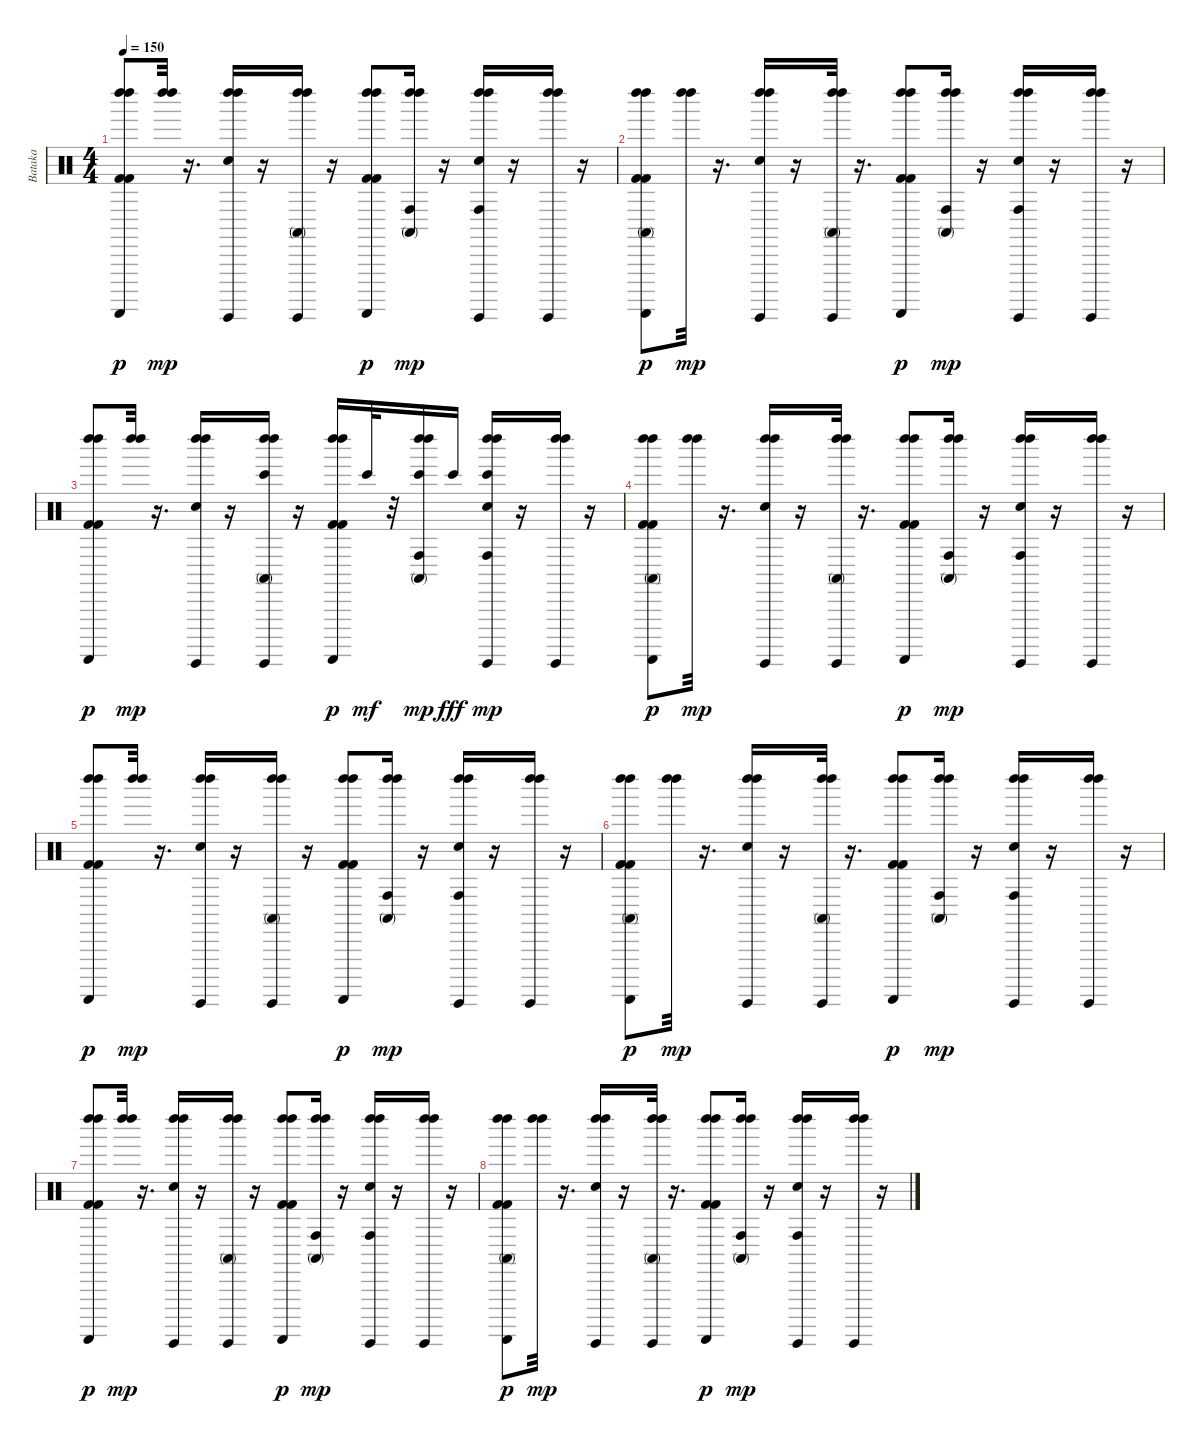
\track ("Bataka" "Bataka") {instrument percussion}
\staff {score}
\articulation defaults
\ts (4 4)
\tempo 150
\clef neutral
\ks c
("Kick (hit) 2" "Kick (hit) 2" "Left Maraca (hit)" "Guiro (scrap-return)" "Left Maraca (hit)").8{dy p} ("Left Maraca (hit)" "Left Maraca (hit)").32{dy mp} r.16{d} ("Electric Snare (hit)" "Left Maraca (hit)" "Guiro (hit)" "Left Maraca (hit)").16 r.16 ("Left Maraca (hit)" "Conga high (mute)" "Guiro (hit)" "Left Maraca (hit)").16 r.16 ("Kick (hit) 2" "Kick (hit) 2" "Left Maraca (hit)" "Guiro (scrap-return)" "Left Maraca (hit)").8{dy p} ("Left Maraca (hit)" "Conga high (hit)" "Conga high (mute)" "Left Maraca (hit)").16{dy mp} r.16 ("Electric Snare (hit)" "Left Maraca (hit)" "Conga high (hit)" "Guiro (hit)" "Left Maraca (hit)").16 r.16 ("Left Maraca (hit)" "Guiro (hit)" "Left Maraca (hit)").16 r.16 |
("Kick (hit) 2" "Kick (hit) 2" "Left Maraca (hit)" "Conga high (mute)" "Guiro (scrap-return)" "Left Maraca (hit)").8{dy p} ("Left Maraca (hit)" "Left Maraca (hit)").32{dy mp} r.16{d} ("Electric Snare (hit)" "Left Maraca (hit)" "Guiro (hit)" "Left Maraca (hit)").16 r.16 ("Left Maraca (hit)" "Conga high (mute)" "Guiro (hit)" "Left Maraca (hit)").32 r.16{d} ("Kick (hit) 2" "Kick (hit) 2" "Left Maraca (hit)" "Guiro (scrap-return)" "Left Maraca (hit)").8{dy p} ("Left Maraca (hit)" "Conga high (hit)" "Conga high (mute)" "Left Maraca (hit)").16{dy mp} r.16 ("Electric Snare (hit)" "Left Maraca (hit)" "Conga high (hit)" "Guiro (hit)" "Left Maraca (hit)").16 r.16 ("Left Maraca (hit)" "Guiro (hit)" "Left Maraca (hit)").16 r.16 |
("Kick (hit) 2" "Kick (hit) 2" "Left Maraca (hit)" "Guiro (scrap-return)" "Left Maraca (hit)").8{dy p} ("Left Maraca (hit)" "Left Maraca (hit)").32{dy mp} r.16{d} ("Electric Snare (hit)" "Left Maraca (hit)" "Guiro (hit)" "Left Maraca (hit)").16 r.16 ("Left Maraca (hit)" "Bongo High (hit)" "Conga high (mute)" "Guiro (hit)" "Left Maraca (hit)").16 r.16 ("Kick (hit) 2" "Kick (hit) 2" "Left Maraca (hit)" "Guiro (scrap-return)" "Left Maraca (hit)").16{dy p} "Bongo High (hit)".32{dy mf} r.32 ("Left Maraca (hit)" "Bongo High (hit)" "Conga high (hit)" "Conga high (mute)" "Left Maraca (hit)").16{dy mp} "Bongo High (hit)".16{dy fff} ("Electric Snare (hit)" "Left Maraca (hit)" "Bongo High (hit)" "Conga high (hit)" "Guiro (hit)" "Left Maraca (hit)").16{dy mp} r.16 ("Left Maraca (hit)" "Guiro (hit)" "Left Maraca (hit)").16 r.16 |
("Kick (hit) 2" "Kick (hit) 2" "Left Maraca (hit)" "Conga high (mute)" "Guiro (scrap-return)" "Left Maraca (hit)").8{dy p} ("Left Maraca (hit)" "Left Maraca (hit)").32{dy mp} r.16{d} ("Electric Snare (hit)" "Left Maraca (hit)" "Guiro (hit)" "Left Maraca (hit)").16 r.16 ("Left Maraca (hit)" "Conga high (mute)" "Guiro (hit)" "Left Maraca (hit)").32 r.16{d} ("Kick (hit) 2" "Kick (hit) 2" "Left Maraca (hit)" "Guiro (scrap-return)" "Left Maraca (hit)").8{dy p} ("Left Maraca (hit)" "Conga high (hit)" "Conga high (mute)" "Left Maraca (hit)").16{dy mp} r.16 ("Electric Snare (hit)" "Left Maraca (hit)" "Conga high (hit)" "Guiro (hit)" "Left Maraca (hit)").16 r.16 ("Left Maraca (hit)" "Guiro (hit)" "Left Maraca (hit)").16 r.16 |
("Kick (hit) 2" "Kick (hit) 2" "Left Maraca (hit)" "Guiro (scrap-return)" "Left Maraca (hit)").8{dy p} ("Left Maraca (hit)" "Left Maraca (hit)").32{dy mp} r.16{d} ("Electric Snare (hit)" "Left Maraca (hit)" "Guiro (hit)" "Left Maraca (hit)").16 r.16 ("Left Maraca (hit)" "Conga high (mute)" "Guiro (hit)" "Left Maraca (hit)").16 r.16 ("Kick (hit) 2" "Kick (hit) 2" "Left Maraca (hit)" "Guiro (scrap-return)" "Left Maraca (hit)").8{dy p} ("Left Maraca (hit)" "Conga high (hit)" "Conga high (mute)" "Left Maraca (hit)").16{dy mp} r.16 ("Electric Snare (hit)" "Left Maraca (hit)" "Conga high (hit)" "Guiro (hit)" "Left Maraca (hit)").16 r.16 ("Left Maraca (hit)" "Guiro (hit)" "Left Maraca (hit)").16 r.16 |
("Kick (hit) 2" "Kick (hit) 2" "Left Maraca (hit)" "Conga high (mute)" "Guiro (scrap-return)" "Left Maraca (hit)").8{dy p} ("Left Maraca (hit)" "Left Maraca (hit)").32{dy mp} r.16{d} ("Electric Snare (hit)" "Left Maraca (hit)" "Guiro (hit)" "Left Maraca (hit)").16 r.16 ("Left Maraca (hit)" "Conga high (mute)" "Guiro (hit)" "Left Maraca (hit)").32 r.16{d} ("Kick (hit) 2" "Kick (hit) 2" "Left Maraca (hit)" "Guiro (scrap-return)" "Left Maraca (hit)").8{dy p} ("Left Maraca (hit)" "Conga high (hit)" "Conga high (mute)" "Left Maraca (hit)").16{dy mp} r.16 ("Electric Snare (hit)" "Left Maraca (hit)" "Conga high (hit)" "Guiro (hit)" "Left Maraca (hit)").16 r.16 ("Left Maraca (hit)" "Guiro (hit)" "Left Maraca (hit)").16 r.16 |
("Kick (hit) 2" "Kick (hit) 2" "Left Maraca (hit)" "Guiro (scrap-return)" "Left Maraca (hit)").8{dy p} ("Left Maraca (hit)" "Left Maraca (hit)").32{dy mp} r.16{d} ("Electric Snare (hit)" "Left Maraca (hit)" "Guiro (hit)" "Left Maraca (hit)").16 r.16 ("Left Maraca (hit)" "Conga high (mute)" "Guiro (hit)" "Left Maraca (hit)").16 r.16 ("Kick (hit) 2" "Kick (hit) 2" "Left Maraca (hit)" "Guiro (scrap-return)" "Left Maraca (hit)").8{dy p} ("Left Maraca (hit)" "Conga high (hit)" "Conga high (mute)" "Left Maraca (hit)").16{dy mp} r.16 ("Electric Snare (hit)" "Left Maraca (hit)" "Conga high (hit)" "Guiro (hit)" "Left Maraca (hit)").16 r.16 ("Left Maraca (hit)" "Guiro (hit)" "Left Maraca (hit)").16 r.16 |
("Kick (hit) 2" "Kick (hit) 2" "Left Maraca (hit)" "Conga high (mute)" "Guiro (scrap-return)" "Left Maraca (hit)").8{dy p} ("Left Maraca (hit)" "Left Maraca (hit)").32{dy mp} r.16{d} ("Electric Snare (hit)" "Left Maraca (hit)" "Guiro (hit)" "Left Maraca (hit)").16 r.16 ("Left Maraca (hit)" "Conga high (mute)" "Guiro (hit)" "Left Maraca (hit)").32 r.16{d} ("Kick (hit) 2" "Kick (hit) 2" "Left Maraca (hit)" "Guiro (scrap-return)" "Left Maraca (hit)").8{dy p} ("Left Maraca (hit)" "Conga high (hit)" "Conga high (mute)" "Left Maraca (hit)").16{dy mp} r.16 ("Electric Snare (hit)" "Left Maraca (hit)" "Conga high (hit)" "Guiro (hit)" "Left Maraca (hit)").16 r.16 ("Left Maraca (hit)" "Guiro (hit)" "Left Maraca (hit)").16 r.16
